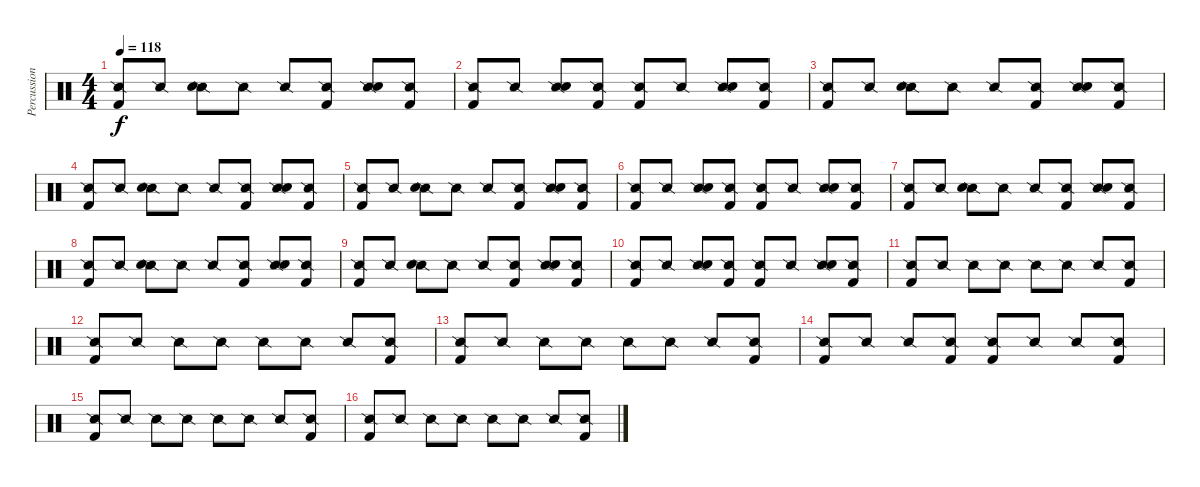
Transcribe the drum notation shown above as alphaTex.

\track ("Percussion" "Percussion") {instrument percussion}
\staff {score}
\articulation defaults
\ts (4 4)
\tempo 118
\clef neutral
\ks c
("Snare (side stick) 2" "Kick (hit) 2").8{dy f} "Snare (side stick) 2".8 ("Snare (side stick) 2" "Electric Snare (hit)").8 "Snare (side stick) 2".8 "Snare (side stick) 2".8 ("Snare (side stick) 2" "Kick (hit) 2").8 ("Snare (side stick) 2" "Electric Snare (hit)").8 ("Snare (side stick) 2" "Kick (hit) 2").8 |
("Snare (side stick) 2" "Kick (hit) 2").8 "Snare (side stick) 2".8 ("Snare (side stick) 2" "Electric Snare (hit)").8 ("Snare (side stick) 2" "Kick (hit) 2").8 ("Snare (side stick) 2" "Kick (hit) 2").8 "Snare (side stick) 2".8 ("Snare (side stick) 2" "Electric Snare (hit)").8 ("Snare (side stick) 2" "Kick (hit) 2").8 |
("Snare (side stick) 2" "Kick (hit) 2").8 "Snare (side stick) 2".8 ("Snare (side stick) 2" "Electric Snare (hit)").8 "Snare (side stick) 2".8 "Snare (side stick) 2".8 ("Snare (side stick) 2" "Kick (hit) 2").8 ("Snare (side stick) 2" "Electric Snare (hit)").8 ("Snare (side stick) 2" "Kick (hit) 2").8 |
("Snare (side stick) 2" "Kick (hit) 2").8 "Snare (side stick) 2".8 ("Snare (side stick) 2" "Electric Snare (hit)").8 "Snare (side stick) 2".8 "Snare (side stick) 2".8 ("Snare (side stick) 2" "Kick (hit) 2").8 ("Snare (side stick) 2" "Electric Snare (hit)").8 ("Snare (side stick) 2" "Kick (hit) 2").8 |
("Snare (side stick) 2" "Kick (hit) 2").8 "Snare (side stick) 2".8 ("Snare (side stick) 2" "Electric Snare (hit)").8 "Snare (side stick) 2".8 "Snare (side stick) 2".8 ("Snare (side stick) 2" "Kick (hit) 2").8 ("Snare (side stick) 2" "Electric Snare (hit)").8 ("Snare (side stick) 2" "Kick (hit) 2").8 |
("Snare (side stick) 2" "Kick (hit) 2").8 "Snare (side stick) 2".8 ("Snare (side stick) 2" "Electric Snare (hit)").8 ("Snare (side stick) 2" "Kick (hit) 2").8 ("Snare (side stick) 2" "Kick (hit) 2").8 "Snare (side stick) 2".8 ("Snare (side stick) 2" "Electric Snare (hit)").8 ("Snare (side stick) 2" "Kick (hit) 2").8 |
("Snare (side stick) 2" "Kick (hit) 2").8 "Snare (side stick) 2".8 ("Snare (side stick) 2" "Electric Snare (hit)").8 "Snare (side stick) 2".8 "Snare (side stick) 2".8 ("Snare (side stick) 2" "Kick (hit) 2").8 ("Snare (side stick) 2" "Electric Snare (hit)").8 ("Snare (side stick) 2" "Kick (hit) 2").8 |
("Snare (side stick) 2" "Kick (hit) 2").8 "Snare (side stick) 2".8 ("Snare (side stick) 2" "Electric Snare (hit)").8 "Snare (side stick) 2".8 "Snare (side stick) 2".8 ("Snare (side stick) 2" "Kick (hit) 2").8 ("Snare (side stick) 2" "Electric Snare (hit)").8 ("Snare (side stick) 2" "Kick (hit) 2").8 |
("Snare (side stick) 2" "Kick (hit) 2").8 "Snare (side stick) 2".8 ("Snare (side stick) 2" "Electric Snare (hit)").8 "Snare (side stick) 2".8 "Snare (side stick) 2".8 ("Snare (side stick) 2" "Kick (hit) 2").8 ("Snare (side stick) 2" "Electric Snare (hit)").8 ("Snare (side stick) 2" "Kick (hit) 2").8 |
("Snare (side stick) 2" "Kick (hit) 2").8 "Snare (side stick) 2".8 ("Snare (side stick) 2" "Electric Snare (hit)").8 ("Snare (side stick) 2" "Kick (hit) 2").8 ("Snare (side stick) 2" "Kick (hit) 2").8 "Snare (side stick) 2".8 ("Snare (side stick) 2" "Electric Snare (hit)").8 ("Snare (side stick) 2" "Kick (hit) 2").8 |
("Snare (side stick) 2" "Kick (hit) 2").8 "Snare (side stick) 2".8 "Snare (side stick) 2".8 "Snare (side stick) 2".8 "Snare (side stick) 2".8 "Snare (side stick) 2".8 "Snare (side stick) 2".8 ("Snare (side stick) 2" "Kick (hit) 2").8 |
("Snare (side stick) 2" "Kick (hit) 2").8 "Snare (side stick) 2".8 "Snare (side stick) 2".8 "Snare (side stick) 2".8 "Snare (side stick) 2".8 "Snare (side stick) 2".8 "Snare (side stick) 2".8 ("Snare (side stick) 2" "Kick (hit) 2").8 |
("Snare (side stick) 2" "Kick (hit) 2").8 "Snare (side stick) 2".8 "Snare (side stick) 2".8 "Snare (side stick) 2".8 "Snare (side stick) 2".8 "Snare (side stick) 2".8 "Snare (side stick) 2".8 ("Snare (side stick) 2" "Kick (hit) 2").8 |
("Snare (side stick) 2" "Kick (hit) 2").8 "Snare (side stick) 2".8 "Snare (side stick) 2".8 ("Snare (side stick) 2" "Kick (hit) 2").8 ("Snare (side stick) 2" "Kick (hit) 2").8 "Snare (side stick) 2".8 "Snare (side stick) 2".8 ("Snare (side stick) 2" "Kick (hit) 2").8 |
("Snare (side stick) 2" "Kick (hit) 2").8 "Snare (side stick) 2".8 "Snare (side stick) 2".8 "Snare (side stick) 2".8 "Snare (side stick) 2".8 "Snare (side stick) 2".8 "Snare (side stick) 2".8 ("Snare (side stick) 2" "Kick (hit) 2").8 |
("Snare (side stick) 2" "Kick (hit) 2").8 "Snare (side stick) 2".8 "Snare (side stick) 2".8 "Snare (side stick) 2".8 "Snare (side stick) 2".8 "Snare (side stick) 2".8 "Snare (side stick) 2".8 ("Snare (side stick) 2" "Kick (hit) 2").8
